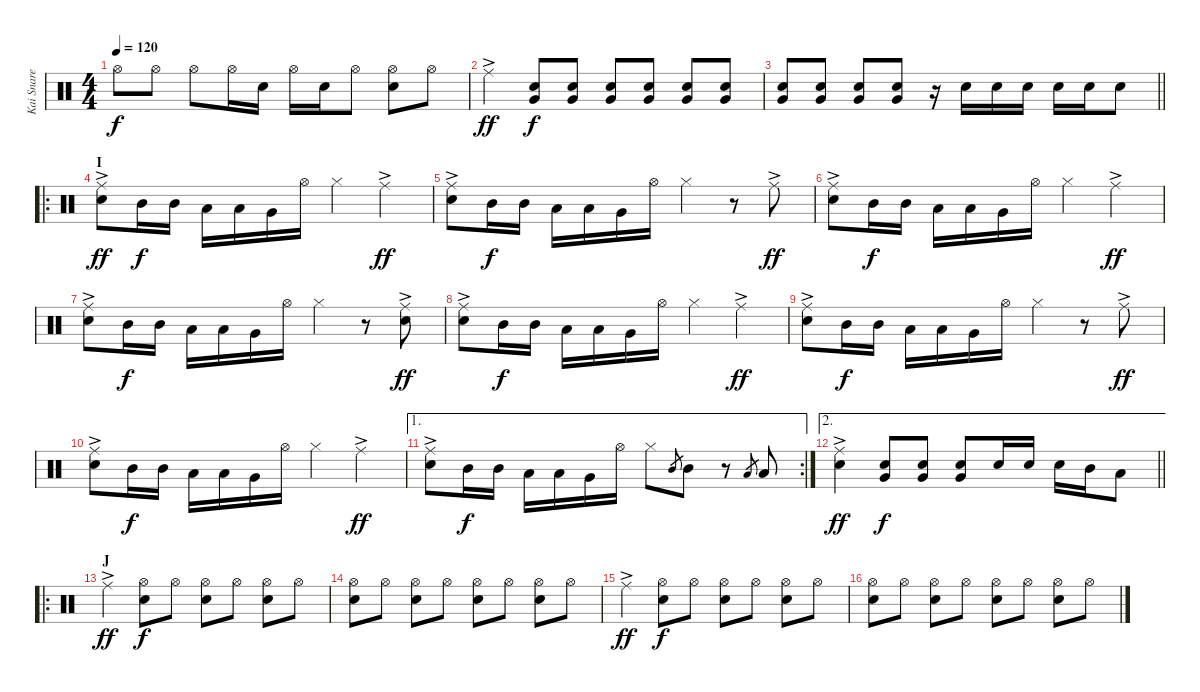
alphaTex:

\track ("Kai Snare" "Kai Snare") {instrument percussion}
\staff {score}
\articulation defaults
\ts (4 4)
\tempo 120
\clef neutral
\ks c "Hi-Hat (open)".8{dy f} "Hi-Hat (open)".8 "Hi-Hat (open)".8 "Hi-Hat (open)".16 "Snare (hit) 2".16 "Hi-Hat (open)".16 "Snare (hit) 2".16 "Hi-Hat (open)".8
("Hi-Hat (open)" "Snare (hit) 2").8 "Hi-Hat (open)".8 |
"Ride (middle)"{ac}.4{dy ff} ("Very Low Tom (hit)" "Snare (hit) 2").8{dy f} ("Very Low Tom (hit)" "Snare (hit) 2").8 ("Very Low Tom (hit)" "Snare (hit) 2").8 ("Very Low Tom (hit)" "Snare (hit) 2").8 ("Very Low Tom (hit)" "Snare (hit) 2").8 ("Very Low Tom (hit)" "Snare (hit) 2").8 |
\barLineRight lightlight
("Very Low Tom (hit)" "Snare (hit) 2").8 ("Very Low Tom (hit)" "Snare (hit) 2").8 ("Very Low Tom (hit)" "Snare (hit) 2").8 ("Very Low Tom (hit)" "Snare (hit) 2").8 r.16 "Snare (hit) 2".16 "Snare (hit) 2".16 "Snare (hit) 2".16 "Snare (hit) 2".16 "Snare (hit) 2".16 "Snare (hit) 2".8 |
\ro
\section ("" "I")
("Ride (middle)"{ac} "Snare (hit) 2").8{dy ff} "Mid Tom (hit)".16{dy f} "Mid Tom (hit)".16 "Low Tom (hit)".16 "Low Tom (hit)".16 "Very Low Tom (hit)".16 "Hi-Hat (open)".16 "Hi-Hat (closed)".4 "Ride (middle)"{ac}.4{dy ff} |
("Ride (middle)"{ac} "Snare (hit) 2").8 "Mid Tom (hit)".16{dy f} "Mid Tom (hit)".16 "Low Tom (hit)".16 "Low Tom (hit)".16 "Very Low Tom (hit)".16 "Hi-Hat (open)".16 "Hi-Hat (closed)".4 r.8 "Ride (middle)"{ac}.8{dy ff} |
("Ride (middle)"{ac} "Snare (hit) 2").8 "Mid Tom (hit)".16{dy f} "Mid Tom (hit)".16 "Low Tom (hit)".16 "Low Tom (hit)".16 "Very Low Tom (hit)".16 "Hi-Hat (open)".16 "Hi-Hat (closed)".4 "Ride (middle)"{ac}.4{dy ff} |
("Ride (middle)"{ac} "Snare (hit) 2").8 "Mid Tom (hit)".16{dy f} "Mid Tom (hit)".16 "Low Tom (hit)".16 "Low Tom (hit)".16 "Very Low Tom (hit)".16 "Hi-Hat (open)".16 "Hi-Hat (closed)".4 r.8 ("Ride (middle)"{ac} "Snare (hit) 2").8{dy ff} |
("Ride (middle)"{ac} "Snare (hit) 2").8 "Mid Tom (hit)".16{dy f} "Mid Tom (hit)".16 "Low Tom (hit)".16 "Low Tom (hit)".16 "Very Low Tom (hit)".16 "Hi-Hat (open)".16 "Hi-Hat (closed)".4 "Ride (middle)"{ac}.4{dy ff} |
("Ride (middle)"{ac} "Snare (hit) 2").8 "Mid Tom (hit)".16{dy f} "Mid Tom (hit)".16 "Low Tom (hit)".16 "Low Tom (hit)".16 "Very Low Tom (hit)".16 "Hi-Hat (open)".16 "Hi-Hat (closed)".4 r.8 "Ride (middle)"{ac}.8{dy ff} |
("Ride (middle)"{ac} "Snare (hit) 2").8 "Mid Tom (hit)".16{dy f} "Mid Tom (hit)".16 "Low Tom (hit)".16 "Low Tom (hit)".16 "Very Low Tom (hit)".16 "Hi-Hat (open)".16 "Hi-Hat (closed)".4 "Ride (middle)"{ac}.4{dy ff} |
\ae 1
\rc 2
("Ride (middle)"{ac} "Snare (hit) 2").8 "Mid Tom (hit)".16{dy f} "Mid Tom (hit)".16 "Low Tom (hit)".16 "Low Tom (hit)".16 "Very Low Tom (hit)".16 "Hi-Hat (open)".16 "Hi-Hat (closed)".8 "Mid Tom (hit)".8{gr} "Mid Tom (hit)".8 r.8 "Low Tom (hit)".8{gr} "Low Tom (hit)".8 |
\ae 2
\barLineRight lightlight
("Ride (middle)"{ac} "Snare (hit) 2").4{dy ff} ("Very Low Tom (hit)" "Snare (hit) 2").8{dy f} ("Very Low Tom (hit)" "Snare (hit) 2").8 ("Very Low Tom (hit)" "Snare (hit) 2").8 "Snare (hit) 2".16 "Snare (hit) 2".16 "Snare (hit) 2".16 "Mid Tom (hit)".16 "Low Tom (hit)".8 |
\ro
\section ("" "J")
"Ride (middle)"{ac}.4{dy ff} ("Hi-Hat (open)" "Snare (hit) 2").8{dy f} "Hi-Hat (open)".8 ("Hi-Hat (open)" "Snare (hit) 2").8 "Hi-Hat (open)".8 ("Hi-Hat (open)" "Snare (hit) 2").8 "Hi-Hat (open)".8 |
("Hi-Hat (open)" "Snare (hit) 2").8 "Hi-Hat (open)".8 ("Hi-Hat (open)" "Snare (hit) 2").8 "Hi-Hat (open)".8 ("Hi-Hat (open)" "Snare (hit) 2").8 "Hi-Hat (open)".8 ("Hi-Hat (open)" "Snare (hit) 2").8 "Hi-Hat (open)".8 |
"Ride (middle)"{ac}.4{dy ff} ("Hi-Hat (open)" "Snare (hit) 2").8{dy f} "Hi-Hat (open)".8 ("Hi-Hat (open)" "Snare (hit) 2").8 "Hi-Hat (open)".8 ("Hi-Hat (open)" "Snare (hit) 2").8 "Hi-Hat (open)".8 |
("Hi-Hat (open)" "Snare (hit) 2").8 "Hi-Hat (open)".8 ("Hi-Hat (open)" "Snare (hit) 2").8 "Hi-Hat (open)".8 ("Hi-Hat (open)" "Snare (hit) 2").8 "Hi-Hat (open)".8 ("Hi-Hat (open)" "Snare (hit) 2").8 "Hi-Hat (open)".8
